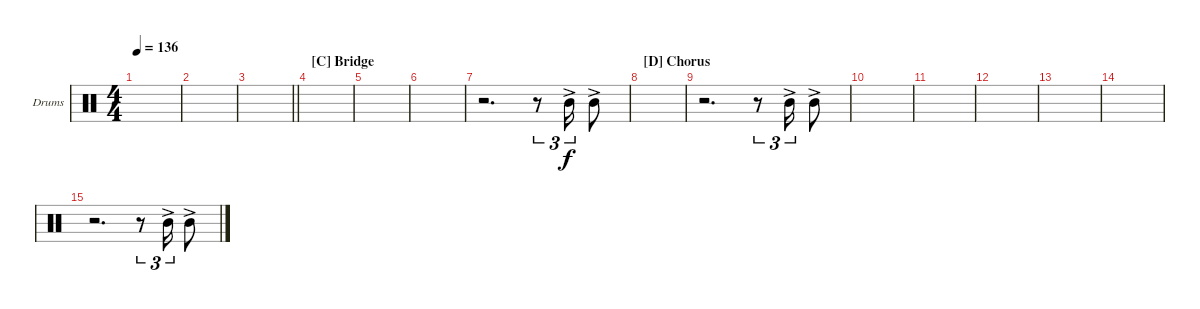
\bracketExtendMode groupsimilarinstruments
\firstSystemTrackNameOrientation horizontal
\otherSystemsTrackNameOrientation horizontal
\track ("Drumkit" "Drums") {instrument percussion}
\staff {score}
\articulation defaults
\ts (4 4)
\tempo 136
\clef neutral
\scale
0.333333
\ks c
|
\scale
0.333333 |
\scale
0.333333
\barLineRight lightlight
|
\section ("C" "Bridge")
\scale
0.333333 |
\scale
0.333333 |
\scale
0.223176 |
\scale
0.565093 r.2{d} r.8{tu (3 2)} "Mid Tom (hit)"{ac}.16{tu (3 2)} "Mid Tom (hit)"{ac}.8 |
\section ("D" "Chorus")
\scale
0.212766 |
\scale
0.333333 r.2{d} r.8{tu (3 2)} "Mid Tom (hit)"{ac}.16{tu (3 2)} "Mid Tom (hit)"{ac}.8 |
\scale
0.333333 |
\scale
0.333333 |
\scale
0.333333 |
\scale
0.333333 |
\scale
0.333333 |
\scale
0.333333 r.2{d} r.8{tu (3 2)} "Mid Tom (hit)"{ac}.16{tu (3 2)} "Mid Tom (hit)"{ac}.8 |
\scale
0.333333
